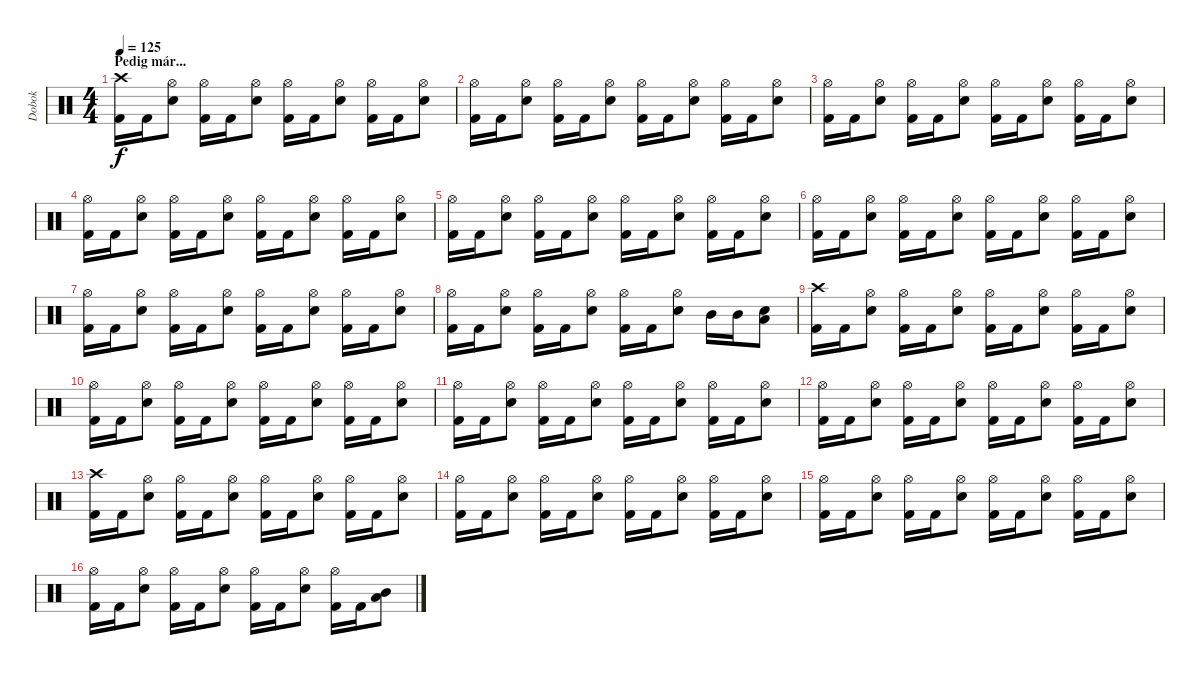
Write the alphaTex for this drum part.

\track ("Dobok" "Dobok") {instrument percussion}
\staff {score}
\articulation defaults
\ts (4 4)
\section ("" "Pedig már...")
\tempo 125
\clef neutral
\ks c
("Crash high (hit)" "Kick (hit) 2").16{dy f} "Kick (hit) 2".16 ("Hi-Hat (open)" "Snare (hit) 2").8 ("Hi-Hat (open)" "Kick (hit) 2").16 "Kick (hit) 2".16 ("Hi-Hat (open)" "Snare (hit) 2").8 ("Hi-Hat (open)" "Kick (hit) 2").16 "Kick (hit) 2".16 ("Hi-Hat (open)" "Snare (hit) 2").8 ("Hi-Hat (open)" "Kick (hit) 2").16 "Kick (hit) 2".16 ("Hi-Hat (open)" "Snare (hit) 2").8 |
("Hi-Hat (open)" "Kick (hit) 2").16 "Kick (hit) 2".16 ("Hi-Hat (open)" "Snare (hit) 2").8 ("Hi-Hat (open)" "Kick (hit) 2").16 "Kick (hit) 2".16 ("Hi-Hat (open)" "Snare (hit) 2").8 ("Hi-Hat (open)" "Kick (hit) 2").16 "Kick (hit) 2".16 ("Hi-Hat (open)" "Snare (hit) 2").8 ("Hi-Hat (open)" "Kick (hit) 2").16 "Kick (hit) 2".16 ("Hi-Hat (open)" "Snare (hit) 2").8 |
("Hi-Hat (open)" "Kick (hit) 2").16 "Kick (hit) 2".16 ("Hi-Hat (open)" "Snare (hit) 2").8 ("Hi-Hat (open)" "Kick (hit) 2").16 "Kick (hit) 2".16 ("Hi-Hat (open)" "Snare (hit) 2").8 ("Hi-Hat (open)" "Kick (hit) 2").16 "Kick (hit) 2".16 ("Hi-Hat (open)" "Snare (hit) 2").8 ("Hi-Hat (open)" "Kick (hit) 2").16 "Kick (hit) 2".16 ("Hi-Hat (open)" "Snare (hit) 2").8 |
("Hi-Hat (open)" "Kick (hit) 2").16 "Kick (hit) 2".16 ("Hi-Hat (open)" "Snare (hit) 2").8 ("Hi-Hat (open)" "Kick (hit) 2").16 "Kick (hit) 2".16 ("Hi-Hat (open)" "Snare (hit) 2").8 ("Hi-Hat (open)" "Kick (hit) 2").16 "Kick (hit) 2".16 ("Hi-Hat (open)" "Snare (hit) 2").8 ("Hi-Hat (open)" "Kick (hit) 2").16 "Kick (hit) 2".16 ("Hi-Hat (open)" "Snare (hit) 2").8 |
("Hi-Hat (open)" "Kick (hit) 2").16 "Kick (hit) 2".16 ("Hi-Hat (open)" "Snare (hit) 2").8 ("Hi-Hat (open)" "Kick (hit) 2").16 "Kick (hit) 2".16 ("Hi-Hat (open)" "Snare (hit) 2").8 ("Hi-Hat (open)" "Kick (hit) 2").16 "Kick (hit) 2".16 ("Hi-Hat (open)" "Snare (hit) 2").8 ("Hi-Hat (open)" "Kick (hit) 2").16 "Kick (hit) 2".16 ("Hi-Hat (open)" "Snare (hit) 2").8 |
("Hi-Hat (open)" "Kick (hit) 2").16 "Kick (hit) 2".16 ("Hi-Hat (open)" "Snare (hit) 2").8 ("Hi-Hat (open)" "Kick (hit) 2").16 "Kick (hit) 2".16 ("Hi-Hat (open)" "Snare (hit) 2").8 ("Hi-Hat (open)" "Kick (hit) 2").16 "Kick (hit) 2".16 ("Hi-Hat (open)" "Snare (hit) 2").8 ("Hi-Hat (open)" "Kick (hit) 2").16 "Kick (hit) 2".16 ("Hi-Hat (open)" "Snare (hit) 2").8 |
("Hi-Hat (open)" "Kick (hit) 2").16 "Kick (hit) 2".16 ("Hi-Hat (open)" "Snare (hit) 2").8 ("Hi-Hat (open)" "Kick (hit) 2").16 "Kick (hit) 2".16 ("Hi-Hat (open)" "Snare (hit) 2").8 ("Hi-Hat (open)" "Kick (hit) 2").16 "Kick (hit) 2".16 ("Hi-Hat (open)" "Snare (hit) 2").8 ("Hi-Hat (open)" "Kick (hit) 2").16 "Kick (hit) 2".16 ("Hi-Hat (open)" "Snare (hit) 2").8 |
("Hi-Hat (open)" "Kick (hit) 2").16 "Kick (hit) 2".16 ("Hi-Hat (open)" "Snare (hit) 2").8 ("Hi-Hat (open)" "Kick (hit) 2").16 "Kick (hit) 2".16 ("Hi-Hat (open)" "Snare (hit) 2").8 ("Hi-Hat (open)" "Kick (hit) 2").16 "Kick (hit) 2".16 ("Hi-Hat (open)" "Snare (hit) 2").8 "Mid Tom (hit)".16 "Mid Tom (hit)".16 ("Snare (hit) 2" "Low Tom (hit)").8 |
("Crash high (hit)" "Kick (hit) 2").16 "Kick (hit) 2".16 ("Hi-Hat (open)" "Snare (hit) 2").8 ("Hi-Hat (open)" "Kick (hit) 2").16 "Kick (hit) 2".16 ("Hi-Hat (open)" "Snare (hit) 2").8 ("Hi-Hat (open)" "Kick (hit) 2").16 "Kick (hit) 2".16 ("Hi-Hat (open)" "Snare (hit) 2").8 ("Hi-Hat (open)" "Kick (hit) 2").16 "Kick (hit) 2".16 ("Hi-Hat (open)" "Snare (hit) 2").8 |
("Hi-Hat (open)" "Kick (hit) 2").16 "Kick (hit) 2".16 ("Hi-Hat (open)" "Snare (hit) 2").8 ("Hi-Hat (open)" "Kick (hit) 2").16 "Kick (hit) 2".16 ("Hi-Hat (open)" "Snare (hit) 2").8 ("Hi-Hat (open)" "Kick (hit) 2").16 "Kick (hit) 2".16 ("Hi-Hat (open)" "Snare (hit) 2").8 ("Hi-Hat (open)" "Kick (hit) 2").16 "Kick (hit) 2".16 ("Hi-Hat (open)" "Snare (hit) 2").8 |
("Hi-Hat (open)" "Kick (hit) 2").16 "Kick (hit) 2".16 ("Hi-Hat (open)" "Snare (hit) 2").8 ("Hi-Hat (open)" "Kick (hit) 2").16 "Kick (hit) 2".16 ("Hi-Hat (open)" "Snare (hit) 2").8 ("Hi-Hat (open)" "Kick (hit) 2").16 "Kick (hit) 2".16 ("Hi-Hat (open)" "Snare (hit) 2").8 ("Hi-Hat (open)" "Kick (hit) 2").16 "Kick (hit) 2".16 ("Hi-Hat (open)" "Snare (hit) 2").8 |
("Hi-Hat (open)" "Kick (hit) 2").16 "Kick (hit) 2".16 ("Hi-Hat (open)" "Snare (hit) 2").8 ("Hi-Hat (open)" "Kick (hit) 2").16 "Kick (hit) 2".16 ("Hi-Hat (open)" "Snare (hit) 2").8 ("Hi-Hat (open)" "Kick (hit) 2").16 "Kick (hit) 2".16 ("Hi-Hat (open)" "Snare (hit) 2").8 ("Hi-Hat (open)" "Kick (hit) 2").16 "Kick (hit) 2".16 ("Hi-Hat (open)" "Snare (hit) 2").8 |
("Crash high (hit)" "Kick (hit) 2").16 "Kick (hit) 2".16 ("Hi-Hat (open)" "Snare (hit) 2").8 ("Hi-Hat (open)" "Kick (hit) 2").16 "Kick (hit) 2".16 ("Hi-Hat (open)" "Snare (hit) 2").8 ("Hi-Hat (open)" "Kick (hit) 2").16 "Kick (hit) 2".16 ("Hi-Hat (open)" "Snare (hit) 2").8 ("Hi-Hat (open)" "Kick (hit) 2").16 "Kick (hit) 2".16 ("Hi-Hat (open)" "Snare (hit) 2").8 |
("Hi-Hat (open)" "Kick (hit) 2").16 "Kick (hit) 2".16 ("Hi-Hat (open)" "Snare (hit) 2").8 ("Hi-Hat (open)" "Kick (hit) 2").16 "Kick (hit) 2".16 ("Hi-Hat (open)" "Snare (hit) 2").8 ("Hi-Hat (open)" "Kick (hit) 2").16 "Kick (hit) 2".16 ("Hi-Hat (open)" "Snare (hit) 2").8 ("Hi-Hat (open)" "Kick (hit) 2").16 "Kick (hit) 2".16 ("Hi-Hat (open)" "Snare (hit) 2").8 |
("Hi-Hat (open)" "Kick (hit) 2").16 "Kick (hit) 2".16 ("Hi-Hat (open)" "Snare (hit) 2").8 ("Hi-Hat (open)" "Kick (hit) 2").16 "Kick (hit) 2".16 ("Hi-Hat (open)" "Snare (hit) 2").8 ("Hi-Hat (open)" "Kick (hit) 2").16 "Kick (hit) 2".16 ("Hi-Hat (open)" "Snare (hit) 2").8 ("Hi-Hat (open)" "Kick (hit) 2").16 "Kick (hit) 2".16 ("Hi-Hat (open)" "Snare (hit) 2").8 |
("Hi-Hat (open)" "Kick (hit) 2").16 "Kick (hit) 2".16 ("Hi-Hat (open)" "Snare (hit) 2").8 ("Hi-Hat (open)" "Kick (hit) 2").16 "Kick (hit) 2".16 ("Hi-Hat (open)" "Snare (hit) 2").8 ("Hi-Hat (open)" "Kick (hit) 2").16 "Kick (hit) 2".16 ("Hi-Hat (open)" "Snare (hit) 2").8 ("Hi-Hat (open)" "Kick (hit) 2").16 "Kick (hit) 2".16 ("Mid Tom (hit)" "Low Tom (hit)").8
